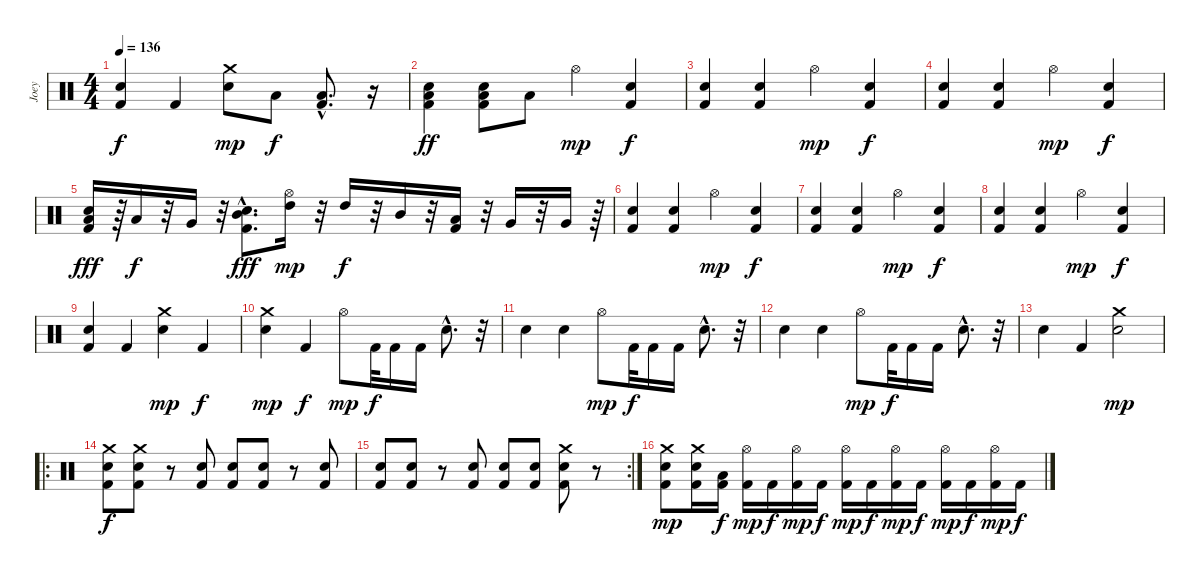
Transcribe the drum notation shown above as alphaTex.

\track ("Joey" "Joey") {instrument percussion}
\staff {score}
\articulation defaults
\ts (4 4)
\tempo 136
\clef neutral
\ks c
("Electric Snare (hit)" "Kick (hit) 2").4{dy f} "Kick (hit) 2".4 ("Crash medium (hit)" "Electric Snare (hit)").8{dy mp} "Low Floor Tom (hit)".8{dy f balance 0} ("Kick (hit) 2"{hac} "Low Floor Tom (hit)"{hac}).8{d} r.16{balance 8} |
("Electric Snare (hit)" "Low Floor Tom (hit)" "Kick (hit) 2").4{dy ff} ("Electric Snare (hit)" "Low Floor Tom (hit)" "Kick (hit) 2").8 "Low Floor Tom (hit)".8 "Hi-Hat (open)".4{dy mp} ("Electric Snare (hit)" "Kick (hit) 2").4{dy f} |
("Electric Snare (hit)" "Kick (hit) 2").4 ("Electric Snare (hit)" "Kick (hit) 2").4 "Hi-Hat (open)".4{dy mp} ("Electric Snare (hit)" "Kick (hit) 2").4{dy f} |
("Electric Snare (hit)" "Kick (hit) 2").4 ("Electric Snare (hit)" "Kick (hit) 2").4 "Hi-Hat (open)".4{dy mp} ("Electric Snare (hit)" "Kick (hit) 2").4{dy f} |
("Low Tom (hit)" "Electric Snare (hit)" "Kick (hit) 2").16{dy fff balance 8} r.64 "Low Tom (hit)".16{dy f balance 16} r.32 "Very Low Tom (hit)".16 r.32 ("Mid Tom (hit)"{hac} "Electric Snare (hit)"{hac} "Kick (hit) 2"{hac}).8{d dy fff balance 8} ("Hi-Hat (open)" "High Tom (hit)").16{dy mp} r.32 "High Tom (hit)".16{dy f balance 16} r.32 "Mid Tom (hit)".16 r.32 ("Low Tom (hit)" "Kick (hit) 2").16{balance 8} r.32 "Very Low Tom (hit)".16{balance 16} r.32 "Very Low Tom (hit)".16 r.64{balance 8} |
("Electric Snare (hit)" "Kick (hit) 2").4 ("Electric Snare (hit)" "Kick (hit) 2").4 "Hi-Hat (open)".4{dy mp} ("Electric Snare (hit)" "Kick (hit) 2").4{dy f} |
("Electric Snare (hit)" "Kick (hit) 2").4 ("Electric Snare (hit)" "Kick (hit) 2").4 "Hi-Hat (open)".4{dy mp} ("Electric Snare (hit)" "Kick (hit) 2").4{dy f} |
("Electric Snare (hit)" "Kick (hit) 2").4 ("Electric Snare (hit)" "Kick (hit) 2").4 "Hi-Hat (open)".4{dy mp} ("Electric Snare (hit)" "Kick (hit) 2").4{dy f} |
("Electric Snare (hit)" "Kick (hit) 2").4 "Kick (hit) 2".4 ("Crash medium (hit)" "Electric Snare (hit)").4{dy mp} "Kick (hit) 2".4{dy f} |
("Crash medium (hit)" "Electric Snare (hit)").4{dy mp} "Kick (hit) 2".4{dy f} "Hi-Hat (open)".8{dy mp} "Kick (hit) 2".32{dy f} "Kick (hit) 2".16 "Kick (hit) 2".16 "Electric Snare (hit)"{hac}.8{d} r.32 |
"Electric Snare (hit)".4 "Electric Snare (hit)".4 "Hi-Hat (open)".8{dy mp} "Kick (hit) 2".32{dy f} "Kick (hit) 2".16 "Kick (hit) 2".16 "Electric Snare (hit)"{hac}.8{d} r.32 |
"Electric Snare (hit)".4 "Electric Snare (hit)".4 "Hi-Hat (open)".8{dy mp} "Kick (hit) 2".32{dy f} "Kick (hit) 2".16 "Kick (hit) 2".16 "Electric Snare (hit)"{hac}.8{d} r.32 |
"Electric Snare (hit)".4 "Kick (hit) 2".4 ("Crash medium (hit)" "Electric Snare (hit)").2{dy mp} |
\ro
("Crash medium (hit)" "Electric Snare (hit)" "Kick (hit) 2").8{dy f} ("Crash medium (hit)" "Electric Snare (hit)" "Kick (hit) 2").8 r.8 ("Electric Snare (hit)" "Kick (hit) 2").8 ("Electric Snare (hit)" "Kick (hit) 2").8 ("Electric Snare (hit)" "Kick (hit) 2").8 r.8 ("Electric Snare (hit)" "Kick (hit) 2").8 |
\rc 2
("Electric Snare (hit)" "Kick (hit) 2").8 ("Electric Snare (hit)" "Kick (hit) 2").8 r.8 ("Electric Snare (hit)" "Kick (hit) 2").8 ("Electric Snare (hit)" "Kick (hit) 2").8 ("Electric Snare (hit)" "Kick (hit) 2").8 ("Crash medium (hit)" "Electric Snare (hit)" "Kick (hit) 2").8 r.8 |
("Crash medium (hit)" "Electric Snare (hit)" "Kick (hit) 2").8{dy mp} ("Crash medium (hit)" "Electric Snare (hit)" "Kick (hit) 2").16 ("Low Tom (hit)" "Kick (hit) 2").16{dy f} ("Hi-Hat (open)" "Kick (hit) 2").16{dy mp} "Kick (hit) 2".16{dy f} ("Hi-Hat (open)" "Kick (hit) 2").16{dy mp} "Kick (hit) 2".16{dy f} ("Hi-Hat (open)" "Kick (hit) 2").16{dy mp} "Kick (hit) 2".16{dy f} ("Hi-Hat (open)" "Kick (hit) 2").16{dy mp} "Kick (hit) 2".16{dy f} ("Hi-Hat (open)" "Kick (hit) 2").16{dy mp} "Kick (hit) 2".16{dy f} ("Hi-Hat (open)" "Kick (hit) 2").16{dy mp} "Kick (hit) 2".16{dy f}
